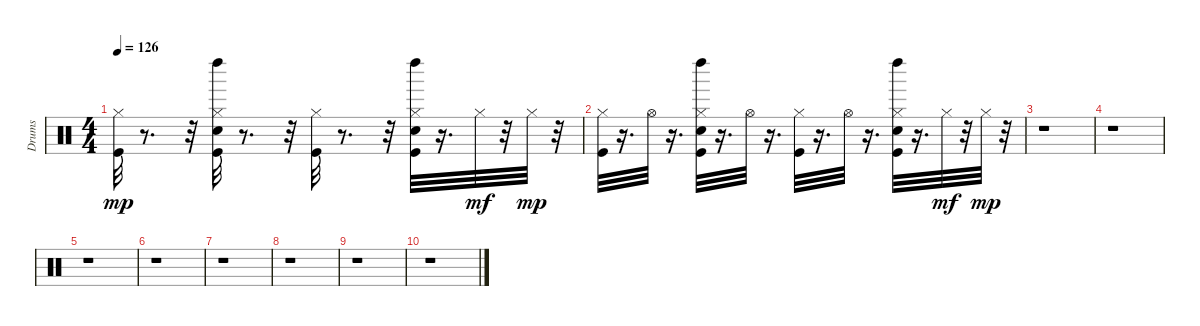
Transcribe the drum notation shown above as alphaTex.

\track ("Drums" "Drums") {instrument percussion}
\staff {score}
\articulation defaults
\ts (4 4)
\tempo 126
\clef neutral
\ks c
("Kick (hit)" "Hi-Hat (closed)").32{dy mp} r.8{d} r.32 ("Kick (hit)" "Hand Clap (hit)" "Hi-Hat (closed)" "Left Maraca (hit)").32 r.8{d} r.32 ("Kick (hit)" "Hi-Hat (closed)").32 r.8{d} r.32 ("Kick (hit)" "Hand Clap (hit)" "Hi-Hat (closed)" "Left Maraca (hit)").32 r.16{d} "Hi-Hat (closed)".32{dy mf} r.32 "Hi-Hat (closed)".32{dy mp} r.32 |
("Kick (hit)" "Hi-Hat (closed)").32 r.16{d} "Hi-Hat (open)".32 r.16{d} ("Kick (hit)" "Hand Clap (hit)" "Hi-Hat (closed)" "Left Maraca (hit)").32 r.16{d} "Hi-Hat (open)".32 r.16{d} ("Kick (hit)" "Hi-Hat (closed)").32 r.16{d} "Hi-Hat (open)".32 r.16{d} ("Kick (hit)" "Hand Clap (hit)" "Hi-Hat (closed)" "Left Maraca (hit)").32 r.16{d} "Hi-Hat (closed)".32{dy mf} r.32 "Hi-Hat (closed)".32{dy mp} r.32 |
r.1 |
r.1 |
r.1 |
r.1 |
r.1 |
r.1 |
r.1 |
r.1
